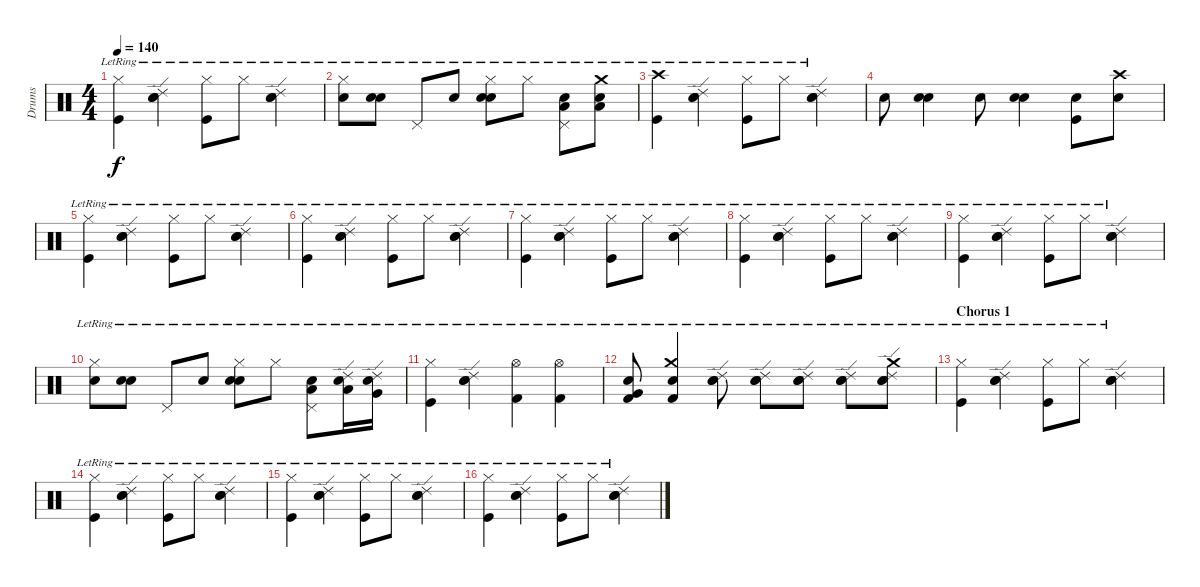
\track ("Drums" "Drums") {instrument percussion}
\staff {score}
\articulation defaults
\ts (4 4)
\tempo 140
\clef neutral
\ks c
("Hi-Hat (closed)"{lr} "Kick (hit)"{lr}).4{dy f} ("Electric Snare (hit)"{lr} "Ride (edge) 2"{lr} "Snare (hit) 2"{lr}).4 ("Hi-Hat (closed)"{lr} "Kick (hit)"{lr}).8 "Hi-Hat (closed)"{lr}.8 ("Electric Snare (hit)"{lr} "Ride (edge) 2"{lr} "Snare (hit) 2"{lr}).4 |
("Hi-Hat (closed)"{lr} "Snare (hit) 2"{lr}).8 ("Snare (hit) 2"{lr} "Electric Snare (hit)"{lr}).8 "Pedal Hi-Hat (hit)"{lr}.8 "Snare (hit) 2"{lr}.8 ("Hi-Hat (closed)"{lr} "Snare (hit) 2"{lr} "Electric Snare (hit)"{lr}).8 "Hi-Hat (closed)"{lr}.8 ("Pedal Hi-Hat (hit)"{lr} "Snare (hit) 2"{lr} "Low Tom (hit)"{lr}).8 ("Crash medium (hit)"{lr} "Snare (hit) 2"{lr} "Low Tom (hit)"{lr}).8 |
("Crash high (hit)"{lr} "Kick (hit)"{lr}).4 ("Electric Snare (hit)"{lr} "Ride (edge) 2"{lr} "Snare (hit) 2"{lr}).4 ("Hi-Hat (closed)"{lr} "Kick (hit)"{lr}).8 "Hi-Hat (closed)"{lr}.8 ("Electric Snare (hit)"{lr} "Ride (edge) 2"{lr} "Snare (hit) 2"{lr}).4 |
"Snare (hit) 2".8 ("Snare (hit) 2" "Electric Snare (hit)").4 "Snare (hit) 2".8 ("Snare (hit) 2" "Electric Snare (hit)").4 ("Snare (hit) 2" "Kick (hit)").8 ("Crash high (hit)" "Snare (hit) 2").8 |
("Hi-Hat (closed)"{lr} "Kick (hit)"{lr}).4 ("Electric Snare (hit)"{lr} "Ride (edge) 2"{lr} "Snare (hit) 2"{lr}).4 ("Hi-Hat (closed)"{lr} "Kick (hit)"{lr}).8 "Hi-Hat (closed)"{lr}.8 ("Electric Snare (hit)"{lr} "Ride (edge) 2"{lr} "Snare (hit) 2"{lr}).4 |
("Hi-Hat (closed)"{lr} "Kick (hit)"{lr}).4 ("Electric Snare (hit)"{lr} "Ride (edge) 2"{lr} "Snare (hit) 2"{lr}).4 ("Hi-Hat (closed)"{lr} "Kick (hit)"{lr}).8 "Hi-Hat (closed)"{lr}.8 ("Electric Snare (hit)"{lr} "Ride (edge) 2"{lr} "Snare (hit) 2"{lr}).4 |
("Hi-Hat (closed)"{lr} "Kick (hit)"{lr}).4 ("Electric Snare (hit)"{lr} "Ride (edge) 2"{lr} "Snare (hit) 2"{lr}).4 ("Hi-Hat (closed)"{lr} "Kick (hit)"{lr}).8 "Hi-Hat (closed)"{lr}.8 ("Electric Snare (hit)"{lr} "Ride (edge) 2"{lr} "Snare (hit) 2"{lr}).4 |
("Hi-Hat (closed)"{lr} "Kick (hit)"{lr}).4 ("Electric Snare (hit)"{lr} "Ride (edge) 2"{lr} "Snare (hit) 2"{lr}).4 ("Hi-Hat (closed)"{lr} "Kick (hit)"{lr}).8 "Hi-Hat (closed)"{lr}.8 ("Electric Snare (hit)"{lr} "Ride (edge) 2"{lr} "Snare (hit) 2"{lr}).4 |
("Hi-Hat (closed)"{lr} "Kick (hit)"{lr}).4 ("Electric Snare (hit)"{lr} "Ride (edge) 2"{lr} "Snare (hit) 2"{lr}).4 ("Hi-Hat (closed)"{lr} "Kick (hit)"{lr}).8 "Hi-Hat (closed)"{lr}.8 ("Electric Snare (hit)"{lr} "Ride (edge) 2"{lr} "Snare (hit) 2"{lr}).4 |
("Hi-Hat (closed)"{lr} "Snare (hit) 2"{lr}).8 ("Snare (hit) 2"{lr} "Electric Snare (hit)"{lr}).8 "Pedal Hi-Hat (hit)"{lr}.8 "Snare (hit) 2"{lr}.8 ("Hi-Hat (closed)"{lr} "Snare (hit) 2"{lr} "Electric Snare (hit)"{lr}).8 "Hi-Hat (closed)"{lr}.8 ("Pedal Hi-Hat (hit)"{lr} "Snare (hit) 2"{lr} "Low Tom (hit)"{lr}).8 ("Ride (edge) 2"{lr} "Snare (hit) 2"{lr} "Low Tom (hit)"{lr}).16 ("Ride (edge) 2"{lr} "Snare (hit) 2"{lr} "Very Low Tom (hit)"{lr}).16 |
("Hi-Hat (closed)"{lr} "Kick (hit)"{lr}).4 ("Electric Snare (hit)"{lr} "Ride (edge) 2"{lr} "Snare (hit) 2"{lr}).4 ("Kick (hit) 2"{lr} "Hi-Hat (open)"{lr}).4 ("Kick (hit) 2"{lr} "Hi-Hat (open)").4 |
("Kick (hit) 2"{lr} "Very Low Tom (hit)"{lr} "Electric Snare (hit)"{lr}).8 ("Kick (hit) 2"{lr} "Crash medium (hit)" "Electric Snare (hit)"{lr}).4 ("Snare (hit) 2"{lr} "Electric Snare (hit)"{lr} "Ride (edge) 2"{lr}).8 ("Snare (hit) 2"{lr} "Electric Snare (hit)"{lr} "Ride (edge) 2"{lr}).8 ("Snare (hit) 2"{lr} "Electric Snare (hit)"{lr} "Ride (edge) 2"{lr}).8 ("Snare (hit) 2"{lr} "Electric Snare (hit)"{lr} "Ride (edge) 2"{lr}).8 ("Snare (hit) 2"{lr} "Electric Snare (hit)"{lr} "Ride (edge) 2"{lr} "Crash medium (hit)"{lr}).8 |
\section ("" "Chorus 1")
("Hi-Hat (closed)"{lr} "Kick (hit)"{lr}).4 ("Electric Snare (hit)"{lr} "Ride (edge) 2"{lr} "Snare (hit) 2"{lr}).4 ("Hi-Hat (closed)"{lr} "Kick (hit)"{lr}).8 "Hi-Hat (closed)"{lr}.8 ("Electric Snare (hit)"{lr} "Ride (edge) 2"{lr} "Snare (hit) 2"{lr}).4 |
("Hi-Hat (closed)"{lr} "Kick (hit)"{lr}).4 ("Electric Snare (hit)"{lr} "Ride (edge) 2"{lr} "Snare (hit) 2"{lr}).4 ("Hi-Hat (closed)"{lr} "Kick (hit)"{lr}).8 "Hi-Hat (closed)"{lr}.8 ("Electric Snare (hit)"{lr} "Ride (edge) 2"{lr} "Snare (hit) 2"{lr}).4 |
("Hi-Hat (closed)"{lr} "Kick (hit)"{lr}).4 ("Electric Snare (hit)"{lr} "Ride (edge) 2"{lr} "Snare (hit) 2"{lr}).4 ("Hi-Hat (closed)"{lr} "Kick (hit)"{lr}).8 "Hi-Hat (closed)"{lr}.8 ("Electric Snare (hit)"{lr} "Ride (edge) 2"{lr} "Snare (hit) 2"{lr}).4 |
("Hi-Hat (closed)"{lr} "Kick (hit)"{lr}).4 ("Electric Snare (hit)"{lr} "Ride (edge) 2"{lr} "Snare (hit) 2"{lr}).4 ("Hi-Hat (closed)"{lr} "Kick (hit)"{lr}).8 "Hi-Hat (closed)"{lr}.8 ("Electric Snare (hit)"{lr} "Ride (edge) 2"{lr} "Snare (hit) 2"{lr}).4
